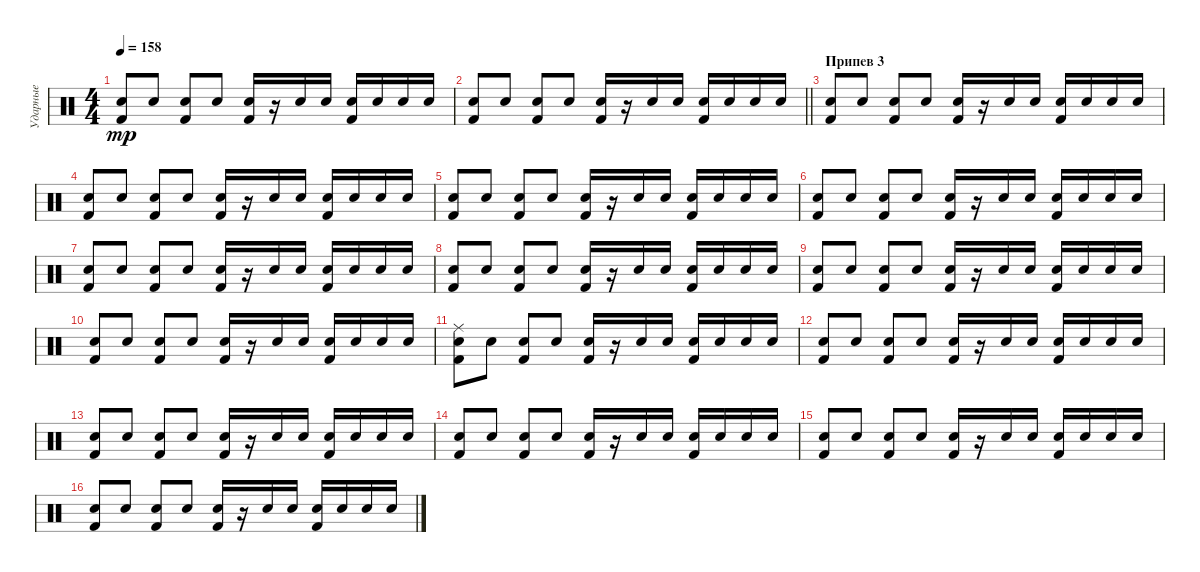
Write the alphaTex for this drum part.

\track ("Ударные" "Ударные") {instrument percussion}
\staff {score}
\articulation defaults
\ts (4 4)
\tempo 158
\clef neutral
\ks c
("Electric Snare (hit)" "Kick (hit) 2").8{dy mp} "Electric Snare (hit)".8 ("Electric Snare (hit)" "Kick (hit) 2").8 "Electric Snare (hit)".8 ("Electric Snare (hit)" "Kick (hit) 2").16 r.16 "Electric Snare (hit)".16 "Electric Snare (hit)".16 ("Electric Snare (hit)" "Kick (hit) 2").16 "Electric Snare (hit)".16 "Electric Snare (hit)".16 "Electric Snare (hit)".16 |
\barLineRight lightlight
("Electric Snare (hit)" "Kick (hit) 2").8 "Electric Snare (hit)".8 ("Electric Snare (hit)" "Kick (hit) 2").8 "Electric Snare (hit)".8 ("Electric Snare (hit)" "Kick (hit) 2").16 r.16 "Electric Snare (hit)".16 "Electric Snare (hit)".16 ("Electric Snare (hit)" "Kick (hit) 2").16 "Electric Snare (hit)".16 "Electric Snare (hit)".16 "Electric Snare (hit)".16 |
\section ("" "Припев 3")
("Electric Snare (hit)" "Kick (hit) 2").8 "Electric Snare (hit)".8 ("Electric Snare (hit)" "Kick (hit) 2").8 "Electric Snare (hit)".8 ("Electric Snare (hit)" "Kick (hit) 2").16 r.16 "Electric Snare (hit)".16 "Electric Snare (hit)".16 ("Electric Snare (hit)" "Kick (hit) 2").16 "Electric Snare (hit)".16 "Electric Snare (hit)".16 "Electric Snare (hit)".16 |
("Electric Snare (hit)" "Kick (hit) 2").8 "Electric Snare (hit)".8 ("Electric Snare (hit)" "Kick (hit) 2").8 "Electric Snare (hit)".8 ("Electric Snare (hit)" "Kick (hit) 2").16 r.16 "Electric Snare (hit)".16 "Electric Snare (hit)".16 ("Electric Snare (hit)" "Kick (hit) 2").16 "Electric Snare (hit)".16 "Electric Snare (hit)".16 "Electric Snare (hit)".16 |
("Electric Snare (hit)" "Kick (hit) 2").8 "Electric Snare (hit)".8 ("Electric Snare (hit)" "Kick (hit) 2").8 "Electric Snare (hit)".8 ("Electric Snare (hit)" "Kick (hit) 2").16 r.16 "Electric Snare (hit)".16 "Electric Snare (hit)".16 ("Electric Snare (hit)" "Kick (hit) 2").16 "Electric Snare (hit)".16 "Electric Snare (hit)".16 "Electric Snare (hit)".16 |
("Electric Snare (hit)" "Kick (hit) 2").8 "Electric Snare (hit)".8 ("Electric Snare (hit)" "Kick (hit) 2").8 "Electric Snare (hit)".8 ("Electric Snare (hit)" "Kick (hit) 2").16 r.16 "Electric Snare (hit)".16 "Electric Snare (hit)".16 ("Electric Snare (hit)" "Kick (hit) 2").16 "Electric Snare (hit)".16 "Electric Snare (hit)".16 "Electric Snare (hit)".16 |
("Electric Snare (hit)" "Kick (hit) 2").8 "Electric Snare (hit)".8 ("Electric Snare (hit)" "Kick (hit) 2").8 "Electric Snare (hit)".8 ("Electric Snare (hit)" "Kick (hit) 2").16 r.16 "Electric Snare (hit)".16 "Electric Snare (hit)".16 ("Electric Snare (hit)" "Kick (hit) 2").16 "Electric Snare (hit)".16 "Electric Snare (hit)".16 "Electric Snare (hit)".16 |
("Electric Snare (hit)" "Kick (hit) 2").8 "Electric Snare (hit)".8 ("Electric Snare (hit)" "Kick (hit) 2").8 "Electric Snare (hit)".8 ("Electric Snare (hit)" "Kick (hit) 2").16 r.16 "Electric Snare (hit)".16 "Electric Snare (hit)".16 ("Electric Snare (hit)" "Kick (hit) 2").16 "Electric Snare (hit)".16 "Electric Snare (hit)".16 "Electric Snare (hit)".16 |
("Electric Snare (hit)" "Kick (hit) 2").8 "Electric Snare (hit)".8 ("Electric Snare (hit)" "Kick (hit) 2").8 "Electric Snare (hit)".8 ("Electric Snare (hit)" "Kick (hit) 2").16 r.16 "Electric Snare (hit)".16 "Electric Snare (hit)".16 ("Electric Snare (hit)" "Kick (hit) 2").16 "Electric Snare (hit)".16 "Electric Snare (hit)".16 "Electric Snare (hit)".16 |
("Electric Snare (hit)" "Kick (hit) 2").8 "Electric Snare (hit)".8 ("Electric Snare (hit)" "Kick (hit) 2").8 "Electric Snare (hit)".8 ("Electric Snare (hit)" "Kick (hit) 2").16 r.16 "Electric Snare (hit)".16 "Electric Snare (hit)".16 ("Electric Snare (hit)" "Kick (hit) 2").16 "Electric Snare (hit)".16 "Electric Snare (hit)".16 "Electric Snare (hit)".16 |
("Ride (middle)" "Electric Snare (hit)" "Kick (hit) 2").8 "Electric Snare (hit)".8 ("Electric Snare (hit)" "Kick (hit) 2").8 "Electric Snare (hit)".8 ("Electric Snare (hit)" "Kick (hit) 2").16 r.16 "Electric Snare (hit)".16 "Electric Snare (hit)".16 ("Electric Snare (hit)" "Kick (hit) 2").16 "Electric Snare (hit)".16 "Electric Snare (hit)".16 "Electric Snare (hit)".16 |
("Electric Snare (hit)" "Kick (hit) 2").8 "Electric Snare (hit)".8 ("Electric Snare (hit)" "Kick (hit) 2").8 "Electric Snare (hit)".8 ("Electric Snare (hit)" "Kick (hit) 2").16 r.16 "Electric Snare (hit)".16 "Electric Snare (hit)".16 ("Electric Snare (hit)" "Kick (hit) 2").16 "Electric Snare (hit)".16 "Electric Snare (hit)".16 "Electric Snare (hit)".16 |
("Electric Snare (hit)" "Kick (hit) 2").8 "Electric Snare (hit)".8 ("Electric Snare (hit)" "Kick (hit) 2").8 "Electric Snare (hit)".8 ("Electric Snare (hit)" "Kick (hit) 2").16 r.16 "Electric Snare (hit)".16 "Electric Snare (hit)".16 ("Electric Snare (hit)" "Kick (hit) 2").16 "Electric Snare (hit)".16 "Electric Snare (hit)".16 "Electric Snare (hit)".16 |
("Electric Snare (hit)" "Kick (hit) 2").8 "Electric Snare (hit)".8 ("Electric Snare (hit)" "Kick (hit) 2").8 "Electric Snare (hit)".8 ("Electric Snare (hit)" "Kick (hit) 2").16 r.16 "Electric Snare (hit)".16 "Electric Snare (hit)".16 ("Electric Snare (hit)" "Kick (hit) 2").16 "Electric Snare (hit)".16 "Electric Snare (hit)".16 "Electric Snare (hit)".16 |
("Electric Snare (hit)" "Kick (hit) 2").8 "Electric Snare (hit)".8 ("Electric Snare (hit)" "Kick (hit) 2").8 "Electric Snare (hit)".8 ("Electric Snare (hit)" "Kick (hit) 2").16 r.16 "Electric Snare (hit)".16 "Electric Snare (hit)".16 ("Electric Snare (hit)" "Kick (hit) 2").16 "Electric Snare (hit)".16 "Electric Snare (hit)".16 "Electric Snare (hit)".16 |
("Electric Snare (hit)" "Kick (hit) 2").8 "Electric Snare (hit)".8 ("Electric Snare (hit)" "Kick (hit) 2").8 "Electric Snare (hit)".8 ("Electric Snare (hit)" "Kick (hit) 2").16 r.16 "Electric Snare (hit)".16 "Electric Snare (hit)".16 ("Electric Snare (hit)" "Kick (hit) 2").16 "Electric Snare (hit)".16 "Electric Snare (hit)".16 "Electric Snare (hit)".16
